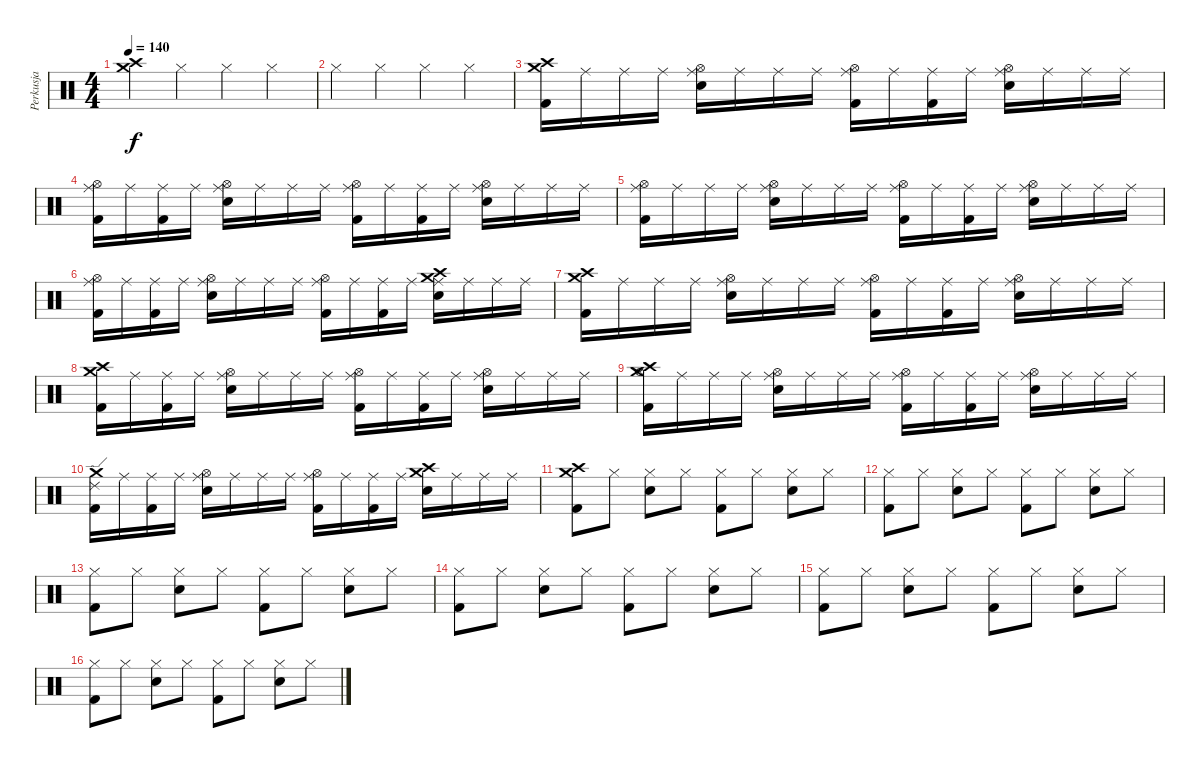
\track ("Perkusja" "Perkusja") {instrument percussion}
\staff {score}
\articulation defaults
\ts (4 4)
\tempo 140
\clef neutral
\ks c
("Crash medium (hit)" "Crash high (hit)").4{dy f} "Hi-Hat (closed)".4 "Hi-Hat (closed)".4 "Hi-Hat (closed)".4 |
"Hi-Hat (closed)".4 "Hi-Hat (closed)".4 "Hi-Hat (closed)".4 "Hi-Hat (closed)".4 |
("Crash medium (hit)" "Crash high (hit)" "Kick (hit) 2").16 "Ride (middle)".16 "Ride (middle)".16 "Ride (middle)".16 ("Ride (middle)" "Hi-Hat (open)" "Snare (hit) 2").16 "Ride (middle)".16 "Ride (middle)".16 "Ride (middle)".16 ("Ride (middle)" "Hi-Hat (open)" "Kick (hit) 2").16 "Ride (middle)".16 ("Ride (middle)" "Kick (hit) 2").16 "Ride (middle)".16 ("Ride (middle)" "Hi-Hat (open)" "Snare (hit) 2").16 "Ride (middle)".16 "Ride (middle)".16 "Ride (middle)".16 |
("Ride (middle)" "Hi-Hat (open)" "Kick (hit) 2").16 "Ride (middle)".16 ("Ride (middle)" "Kick (hit) 2").16 "Ride (middle)".16 ("Ride (middle)" "Hi-Hat (open)" "Snare (hit) 2").16 "Ride (middle)".16 "Ride (middle)".16 "Ride (middle)".16 ("Ride (middle)" "Hi-Hat (open)" "Kick (hit) 2").16 "Ride (middle)".16 ("Ride (middle)" "Kick (hit) 2").16 "Ride (middle)".16 ("Ride (middle)" "Hi-Hat (open)" "Snare (hit) 2").16 "Ride (middle)".16 "Ride (middle)".16 "Ride (middle)".16 |
("Ride (middle)" "Hi-Hat (open)" "Kick (hit) 2").16 "Ride (middle)".16 "Ride (middle)".16 "Ride (middle)".16 ("Ride (middle)" "Hi-Hat (open)" "Snare (hit) 2").16 "Ride (middle)".16 "Ride (middle)".16 "Ride (middle)".16 ("Ride (middle)" "Hi-Hat (open)" "Kick (hit) 2").16 "Ride (middle)".16 ("Ride (middle)" "Kick (hit) 2").16 "Ride (middle)".16 ("Ride (middle)" "Hi-Hat (open)" "Snare (hit) 2").16 "Ride (middle)".16 "Ride (middle)".16 "Ride (middle)".16 |
("Ride (middle)" "Hi-Hat (open)" "Kick (hit) 2").16 "Ride (middle)".16 ("Ride (middle)" "Kick (hit) 2").16 "Ride (middle)".16 ("Ride (middle)" "Hi-Hat (open)" "Snare (hit) 2").16 "Ride (middle)".16 "Ride (middle)".16 "Ride (middle)".16 ("Ride (middle)" "Hi-Hat (open)" "Kick (hit) 2").16 "Ride (middle)".16 ("Ride (middle)" "Kick (hit) 2").16 "Ride (middle)".16 ("Crash medium (hit)" "Crash high (hit)" "Ride (middle)" "Snare (hit) 2").16 "Ride (middle)".16 "Ride (middle)".16 "Ride (middle)".16 |
("Crash medium (hit)" "Crash high (hit)" "Kick (hit) 2").16 "Ride (middle)".16 "Ride (middle)".16 "Ride (middle)".16 ("Ride (middle)" "Hi-Hat (open)" "Snare (hit) 2").16 "Ride (middle)".16 "Ride (middle)".16 "Ride (middle)".16 ("Ride (middle)" "Hi-Hat (open)" "Kick (hit) 2").16 "Ride (middle)".16 ("Ride (middle)" "Kick (hit) 2").16 "Ride (middle)".16 ("Ride (middle)" "Hi-Hat (open)" "Snare (hit) 2").16 "Ride (middle)".16 "Ride (middle)".16 "Ride (middle)".16 |
("Crash medium (hit)" "Crash high (hit)" "Kick (hit) 2").16 "Ride (middle)".16 ("Ride (middle)" "Kick (hit) 2").16 "Ride (middle)".16 ("Ride (middle)" "Hi-Hat (open)" "Snare (hit) 2").16 "Ride (middle)".16 "Ride (middle)".16 "Ride (middle)".16 ("Ride (middle)" "Hi-Hat (open)" "Kick (hit) 2").16 "Ride (middle)".16 ("Ride (middle)" "Kick (hit) 2").16 "Ride (middle)".16 ("Ride (middle)" "Hi-Hat (open)" "Snare (hit) 2").16 "Ride (middle)".16 "Ride (middle)".16 "Ride (middle)".16 |
("Crash medium (hit)" "Crash high (hit)" "Hi-Hat (open)" "Kick (hit) 2").16 "Ride (middle)".16 "Ride (middle)".16 "Ride (middle)".16 ("Ride (middle)" "Hi-Hat (open)" "Snare (hit) 2").16 "Ride (middle)".16 "Ride (middle)".16 "Ride (middle)".16 ("Ride (middle)" "Hi-Hat (open)" "Kick (hit) 2").16 "Ride (middle)".16 ("Ride (middle)" "Kick (hit) 2").16 "Ride (middle)".16 ("Ride (middle)" "Hi-Hat (open)" "Snare (hit) 2").16 "Ride (middle)".16 "Ride (middle)".16 "Ride (middle)".16 |
("Crash medium (hit)" "Ride (edge) 2" "Kick (hit) 2").16 "Ride (middle)".16 ("Ride (middle)" "Kick (hit) 2").16 "Ride (middle)".16 ("Ride (middle)" "Hi-Hat (open)" "Snare (hit) 2").16 "Ride (middle)".16 "Ride (middle)".16 "Ride (middle)".16 ("Ride (middle)" "Hi-Hat (open)" "Kick (hit) 2").16 "Ride (middle)".16 ("Ride (middle)" "Kick (hit) 2").16 "Ride (middle)".16 ("Crash high (hit)" "Crash medium (hit)" "Snare (hit) 2").16 "Ride (middle)".16 "Ride (middle)".16 "Ride (middle)".16 |
("Crash medium (hit)" "Crash high (hit)" "Kick (hit) 2").8 "Hi-Hat (closed)".8 ("Hi-Hat (closed)" "Snare (hit) 2").8 "Hi-Hat (closed)".8 ("Hi-Hat (closed)" "Kick (hit) 2").8 "Hi-Hat (closed)".8 ("Hi-Hat (closed)" "Snare (hit) 2").8 "Hi-Hat (closed)".8 |
("Hi-Hat (closed)" "Kick (hit) 2").8 "Hi-Hat (closed)".8 ("Hi-Hat (closed)" "Snare (hit) 2").8 "Hi-Hat (closed)".8 ("Hi-Hat (closed)" "Kick (hit) 2").8 "Hi-Hat (closed)".8 ("Hi-Hat (closed)" "Snare (hit) 2").8 "Hi-Hat (closed)".8 |
("Hi-Hat (closed)" "Kick (hit) 2").8 "Hi-Hat (closed)".8 ("Hi-Hat (closed)" "Snare (hit) 2").8 "Hi-Hat (closed)".8 ("Hi-Hat (closed)" "Kick (hit) 2").8 "Hi-Hat (closed)".8 ("Hi-Hat (closed)" "Snare (hit) 2").8 "Hi-Hat (closed)".8 |
("Hi-Hat (closed)" "Kick (hit) 2").8 "Hi-Hat (closed)".8 ("Hi-Hat (closed)" "Snare (hit) 2").8 "Hi-Hat (closed)".8 ("Hi-Hat (closed)" "Kick (hit) 2").8 "Hi-Hat (closed)".8 ("Hi-Hat (closed)" "Snare (hit) 2").8 "Hi-Hat (closed)".8 |
("Hi-Hat (closed)" "Kick (hit) 2").8 "Hi-Hat (closed)".8 ("Hi-Hat (closed)" "Snare (hit) 2").8 "Hi-Hat (closed)".8 ("Hi-Hat (closed)" "Kick (hit) 2").8 "Hi-Hat (closed)".8 ("Hi-Hat (closed)" "Snare (hit) 2").8 "Hi-Hat (closed)".8 |
("Hi-Hat (closed)" "Kick (hit) 2").8 "Hi-Hat (closed)".8 ("Hi-Hat (closed)" "Snare (hit) 2").8 "Hi-Hat (closed)".8 ("Hi-Hat (closed)" "Kick (hit) 2").8 "Hi-Hat (closed)".8 ("Hi-Hat (closed)" "Snare (hit) 2").8 "Hi-Hat (closed)".8
